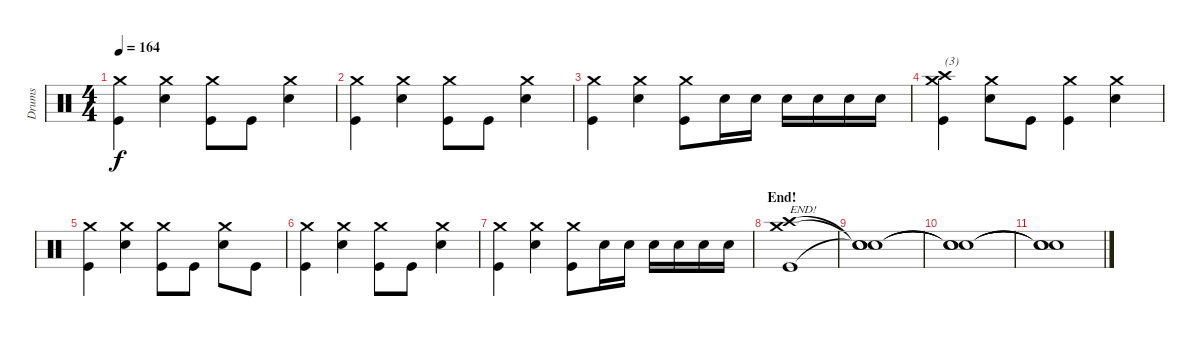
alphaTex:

\track ("Drums" "Drums") {instrument percussion}
\staff {score}
\articulation defaults
\ts (4 4)
\tempo 164
\clef neutral
\ks c
("Crash medium (hit)" "Kick (hit)").4{dy f} ("Crash medium (hit)" "Electric Snare (hit)").4 ("Crash medium (hit)" "Kick (hit)").8 "Kick (hit)".8 ("Crash medium (hit)" "Electric Snare (hit)").4 |
("Crash medium (hit)" "Kick (hit)").4 ("Crash medium (hit)" "Electric Snare (hit)").4 ("Crash medium (hit)" "Kick (hit)").8 "Kick (hit)".8 ("Crash medium (hit)" "Electric Snare (hit)").4 |
("Crash medium (hit)" "Kick (hit)").4 ("Crash medium (hit)" "Electric Snare (hit)").4 ("Crash medium (hit)" "Kick (hit)").8 "Electric Snare (hit)".16 "Electric Snare (hit)".16 "Electric Snare (hit)".16 "Electric Snare (hit)".16 "Electric Snare (hit)".16 "Electric Snare (hit)".16 |
("Crash medium (hit)" "Crash high (hit)" "Kick (hit)").4{txt "(3)"} ("Crash medium (hit)" "Electric Snare (hit)").8 "Kick (hit)".8 ("Crash medium (hit)" "Kick (hit)").4 ("Crash medium (hit)" "Electric Snare (hit)").4 |
("Crash medium (hit)" "Kick (hit)").4 ("Crash medium (hit)" "Electric Snare (hit)").4 ("Crash medium (hit)" "Kick (hit)").8 "Kick (hit)".8 ("Crash medium (hit)" "Electric Snare (hit)").8 "Kick (hit)".8 |
("Crash medium (hit)" "Kick (hit)").4 ("Crash medium (hit)" "Electric Snare (hit)").4 ("Crash medium (hit)" "Kick (hit)").8 "Kick (hit)".8 ("Crash medium (hit)" "Electric Snare (hit)").4 |
("Crash medium (hit)" "Kick (hit)").4 ("Crash medium (hit)" "Electric Snare (hit)").4 ("Crash medium (hit)" "Kick (hit)").8 "Electric Snare (hit)".16 "Electric Snare (hit)".16 "Electric Snare (hit)".16 "Electric Snare (hit)".16 "Electric Snare (hit)".16 "Electric Snare (hit)".16 |
\section ("" "End!")
("Crash medium (hit)" "Crash high (hit)" "Kick (hit)").1{txt "END!"} |
("Snare (hit)"{t} "Snare (hit)"{t} "Snare (hit)"{t}).1 |
("Snare (hit)"{t} "Snare (hit)"{t} "Snare (hit)"{t}).1 |
("Snare (hit)"{t} "Snare (hit)"{t} "Snare (hit)"{t}).1
